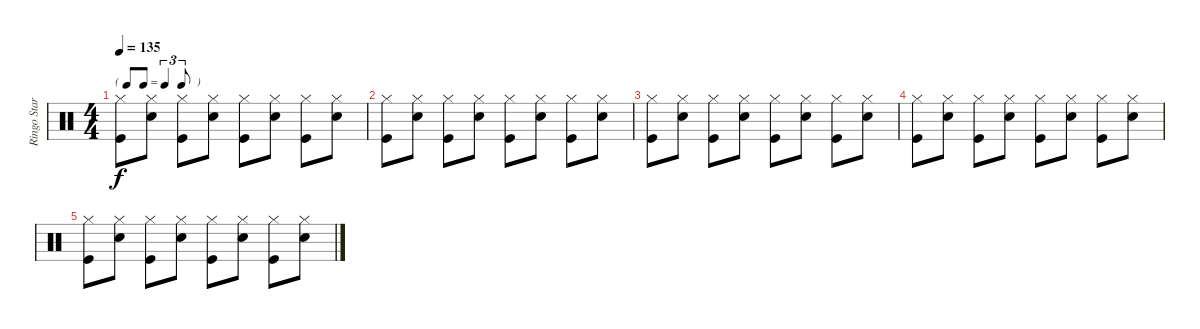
\track ("Ringo Star" "Ringo Star") {instrument percussion}
\staff {score}
\articulation defaults
\ts (4 4)
\tf triplet8th
\tempo 135
\clef neutral
\ks c
("Hi-Hat (closed)" "Kick (hit)").8{dy f} ("Hi-Hat (closed)" "Snare (hit) 2").8 ("Hi-Hat (closed)" "Kick (hit)").8 ("Hi-Hat (closed)" "Snare (hit) 2").8 ("Hi-Hat (closed)" "Kick (hit)").8 ("Hi-Hat (closed)" "Snare (hit) 2").8 ("Hi-Hat (closed)" "Kick (hit)").8 ("Hi-Hat (closed)" "Snare (hit) 2").8 |
("Hi-Hat (closed)" "Kick (hit)").8 ("Hi-Hat (closed)" "Snare (hit) 2").8 ("Hi-Hat (closed)" "Kick (hit)").8 ("Hi-Hat (closed)" "Snare (hit) 2").8 ("Hi-Hat (closed)" "Kick (hit)").8 ("Hi-Hat (closed)" "Snare (hit) 2").8 ("Hi-Hat (closed)" "Kick (hit)").8 ("Hi-Hat (closed)" "Snare (hit) 2").8 |
("Hi-Hat (closed)" "Kick (hit)").8 ("Hi-Hat (closed)" "Snare (hit) 2").8 ("Hi-Hat (closed)" "Kick (hit)").8 ("Hi-Hat (closed)" "Snare (hit) 2").8 ("Hi-Hat (closed)" "Kick (hit)").8 ("Hi-Hat (closed)" "Snare (hit) 2").8 ("Hi-Hat (closed)" "Kick (hit)").8 ("Hi-Hat (closed)" "Snare (hit) 2").8 |
("Hi-Hat (closed)" "Kick (hit)").8 ("Hi-Hat (closed)" "Snare (hit) 2").8 ("Hi-Hat (closed)" "Kick (hit)").8 ("Hi-Hat (closed)" "Snare (hit) 2").8 ("Hi-Hat (closed)" "Kick (hit)").8 ("Hi-Hat (closed)" "Snare (hit) 2").8 ("Hi-Hat (closed)" "Kick (hit)").8 ("Hi-Hat (closed)" "Snare (hit) 2").8 |
("Hi-Hat (closed)" "Kick (hit)").8 ("Hi-Hat (closed)" "Snare (hit) 2").8 ("Hi-Hat (closed)" "Kick (hit)").8 ("Hi-Hat (closed)" "Snare (hit) 2").8 ("Hi-Hat (closed)" "Kick (hit)").8 ("Hi-Hat (closed)" "Snare (hit) 2").8 ("Hi-Hat (closed)" "Kick (hit)").8 ("Hi-Hat (closed)" "Snare (hit) 2").8
